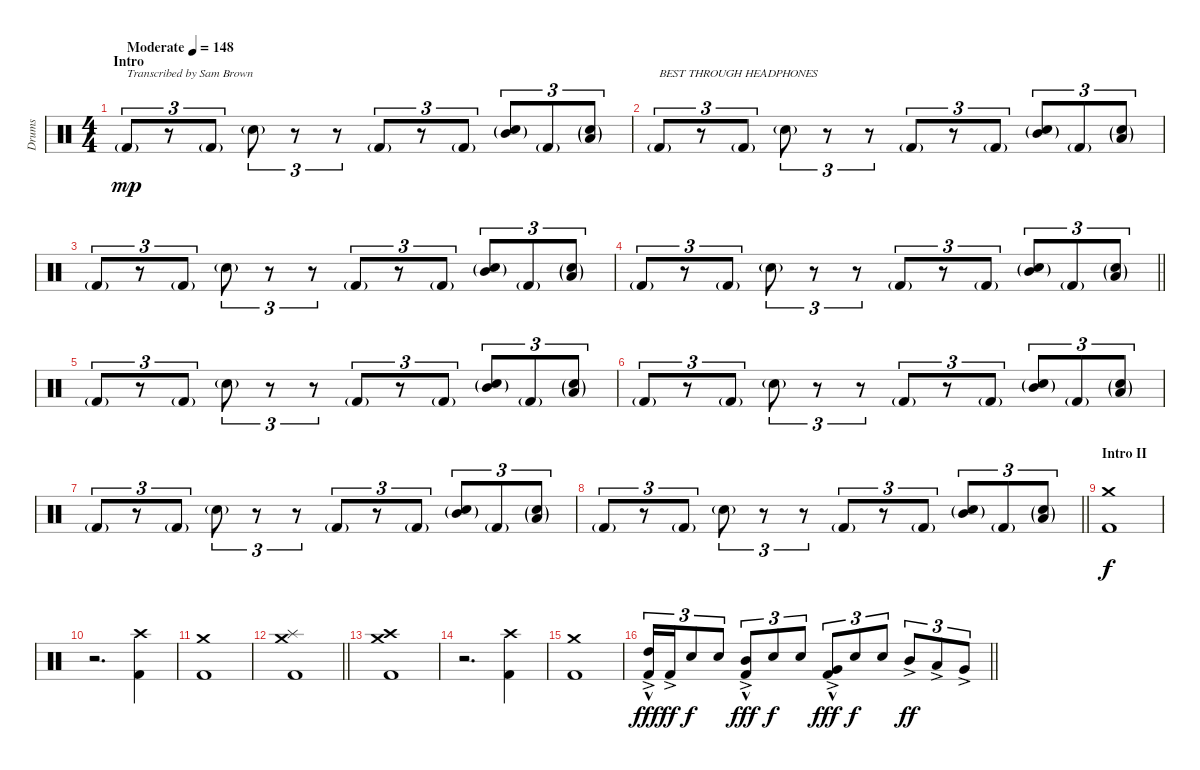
\track ("Drums" "Drums") {instrument percussion}
\staff {score}
\articulation defaults
\ts (4 4)
\section ("" "Intro")
\tempo (148 "Moderate")
\clef neutral
\ks c "Kick (hit) 2"{g}.8{tu (3 2) txt "Transcribed by Sam Brown" dy mp}
r.8{tu (3 2)} "Kick (hit) 2"{g}.8{tu (3 2)} "Snare (hit) 2"{g}.8{tu (3 2)} r.8{tu (3 2)} r.8{tu (3 2)} "Kick (hit) 2"{g}.8{tu (3 2)} r.8{tu (3 2)} "Kick (hit) 2"{g}.8{tu (3 2)} ("Snare (hit) 2"{g} "Mid Tom (hit)"{g}).8{tu (3 2)} "Kick (hit) 2"{g}.8{tu (3 2)} ("Snare (hit) 2"{g} "Low Tom (hit)"{g}).8{tu (3 2)} |
"Kick (hit) 2"{g}.8{tu (3 2) txt "BEST THROUGH HEADPHONES"} r.8{tu (3 2)} "Kick (hit) 2"{g}.8{tu (3 2)} "Snare (hit) 2"{g}.8{tu (3 2)} r.8{tu (3 2)} r.8{tu (3 2)} "Kick (hit) 2"{g}.8{tu (3 2)} r.8{tu (3 2)} "Kick (hit) 2"{g}.8{tu (3 2)} ("Snare (hit) 2"{g} "Mid Tom (hit)"{g}).8{tu (3 2)} "Kick (hit) 2"{g}.8{tu (3 2)} ("Snare (hit) 2"{g} "Low Tom (hit)"{g}).8{tu (3 2)} |
"Kick (hit) 2"{g}.8{tu (3 2)} r.8{tu (3 2)} "Kick (hit) 2"{g}.8{tu (3 2)} "Snare (hit) 2"{g}.8{tu (3 2)} r.8{tu (3 2)} r.8{tu (3 2)} "Kick (hit) 2"{g}.8{tu (3 2)} r.8{tu (3 2)} "Kick (hit) 2"{g}.8{tu (3 2)} ("Snare (hit) 2"{g} "Mid Tom (hit)"{g}).8{tu (3 2)} "Kick (hit) 2"{g}.8{tu (3 2)} ("Snare (hit) 2"{g} "Low Tom (hit)"{g}).8{tu (3 2)} |
\barLineRight lightlight "Kick (hit) 2"{g}.8{tu (3 2)}
r.8{tu (3 2)} "Kick (hit) 2"{g}.8{tu (3 2)} "Snare (hit) 2"{g}.8{tu (3 2)} r.8{tu (3 2)} r.8{tu (3 2)} "Kick (hit) 2"{g}.8{tu (3 2)} r.8{tu (3 2)} "Kick (hit) 2"{g}.8{tu (3 2)} ("Snare (hit) 2"{g} "Mid Tom (hit)"{g}).8{tu (3 2)} "Kick (hit) 2"{g}.8{tu (3 2)} ("Snare (hit) 2"{g} "Low Tom (hit)"{g}).8{tu (3 2)} |
\section ("" "")
"Kick (hit) 2"{g}.8{tu (3 2)} r.8{tu (3 2)} "Kick (hit) 2"{g}.8{tu (3 2)} "Snare (hit) 2"{g}.8{tu (3 2)} r.8{tu (3 2)} r.8{tu (3 2)} "Kick (hit) 2"{g}.8{tu (3 2)} r.8{tu (3 2)} "Kick (hit) 2"{g}.8{tu (3 2)} ("Snare (hit) 2"{g} "Mid Tom (hit)"{g}).8{tu (3 2)} "Kick (hit) 2"{g}.8{tu (3 2)} ("Snare (hit) 2"{g} "Low Tom (hit)"{g}).8{tu (3 2)} |
"Kick (hit) 2"{g}.8{tu (3 2)} r.8{tu (3 2)} "Kick (hit) 2"{g}.8{tu (3 2)} "Snare (hit) 2"{g}.8{tu (3 2)} r.8{tu (3 2)} r.8{tu (3 2)} "Kick (hit) 2"{g}.8{tu (3 2)} r.8{tu (3 2)} "Kick (hit) 2"{g}.8{tu (3 2)} ("Snare (hit) 2"{g} "Mid Tom (hit)"{g}).8{tu (3 2)} "Kick (hit) 2"{g}.8{tu (3 2)} ("Snare (hit) 2"{g} "Low Tom (hit)"{g}).8{tu (3 2)} |
"Kick (hit) 2"{g}.8{tu (3 2)} r.8{tu (3 2)} "Kick (hit) 2"{g}.8{tu (3 2)} "Snare (hit) 2"{g}.8{tu (3 2)} r.8{tu (3 2)} r.8{tu (3 2)} "Kick (hit) 2"{g}.8{tu (3 2)} r.8{tu (3 2)} "Kick (hit) 2"{g}.8{tu (3 2)} ("Snare (hit) 2"{g} "Mid Tom (hit)"{g}).8{tu (3 2)} "Kick (hit) 2"{g}.8{tu (3 2)} ("Snare (hit) 2"{g} "Low Tom (hit)"{g}).8{tu (3 2)} |
\barLineRight lightlight "Kick (hit) 2"{g}.8{tu (3 2)}
r.8{tu (3 2)} "Kick (hit) 2"{g}.8{tu (3 2)} "Snare (hit) 2"{g}.8{tu (3 2)} r.8{tu (3 2)} r.8{tu (3 2)} "Kick (hit) 2"{g}.8{tu (3 2)} r.8{tu (3 2)} "Kick (hit) 2"{g}.8{tu (3 2)} ("Snare (hit) 2"{g} "Mid Tom (hit)"{g}).8{tu (3 2)} "Kick (hit) 2"{g}.8{tu (3 2)} ("Snare (hit) 2"{g} "Low Tom (hit)"{g}).8{tu (3 2)} |
\section ("" "Intro II")
("Kick (hit) 2" "Crash medium (hit)").1{dy f} |
r.2{d} ("Kick (hit) 2" "Crash high (hit)").4 |
("Kick (hit) 2" "Crash medium (hit)").1 |
\barLineRight lightlight
("Kick (hit) 2" "Splash (hit)" "Crash medium (hit)").1 |
\section ("" "")
("Kick (hit) 2" "Crash high (hit)" "Crash medium (hit)").1 |
r.2{d} ("Kick (hit) 2" "Crash high (hit)").4 |
("Kick (hit) 2" "Crash medium (hit)").1 |
\barLineRight lightlight
("Kick (hit) 2"{ac} "High Tom (hit)"{hac}).16{tu (3 2) dy fff} "Kick (hit) 2"{ac}.16{tu (3 2) dy ff} "Snare (hit) 2".8{tu (3 2) dy f} "Snare (hit) 2".8{tu (3 2)} ("Kick (hit) 2"{ac} "Mid Tom (hit)"{hac}).8{tu (3 2) dy fff} "Snare (hit) 2".8{tu (3 2) dy f} "Snare (hit) 2".8{tu (3 2)} ("Kick (hit) 2"{ac} "Very Low Tom (hit)"{hac}).8{tu (3 2) dy fff} "Snare (hit) 2".8{tu (3 2) dy f} "Snare (hit) 2".8{tu (3 2)} "Mid Tom (hit)"{ac}.8{tu (3 2) dy ff} "Low Tom (hit)"{ac}.8{tu (3 2)} "Very Low Tom (hit)"{ac}.8{tu (3 2)}
